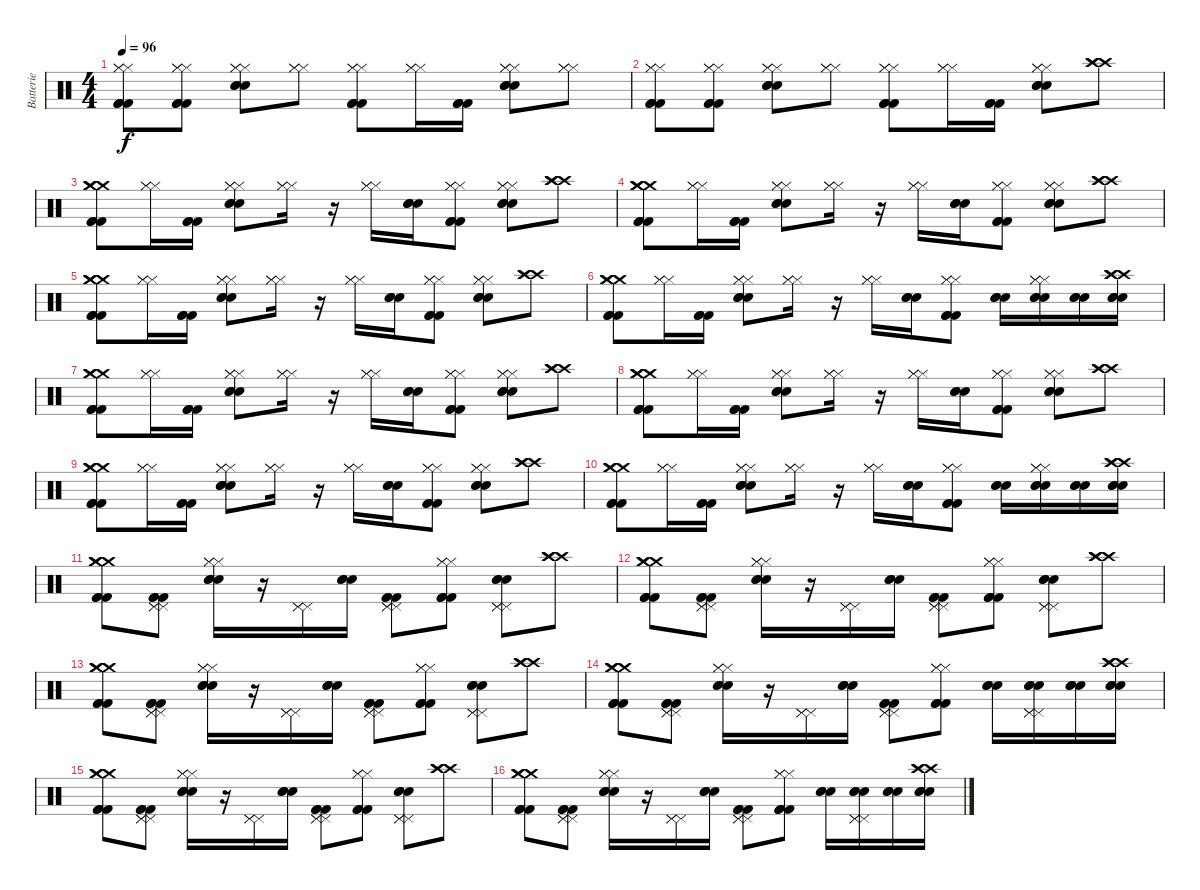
\track ("Batterie" "Batterie") {instrument percussion}
\staff {score}
\articulation defaults
\ts (4 4)
\tempo 96
\clef neutral
\ks c
("Hi-Hat (closed)" "Hi-Hat (closed)" "Hi-Hat (closed)" "Kick (hit) 2" "Kick (hit) 2" "Kick (hit) 2").8{dy f} ("Hi-Hat (closed)" "Hi-Hat (closed)" "Hi-Hat (closed)" "Kick (hit) 2" "Kick (hit) 2" "Kick (hit) 2").8 ("Hi-Hat (closed)" "Hi-Hat (closed)" "Hi-Hat (closed)" "Electric Snare (hit)" "Electric Snare (hit)" "Electric Snare (hit)").8 ("Hi-Hat (closed)" "Hi-Hat (closed)" "Hi-Hat (closed)").8 ("Hi-Hat (closed)" "Hi-Hat (closed)" "Hi-Hat (closed)" "Kick (hit) 2" "Kick (hit) 2" "Kick (hit) 2").8 ("Hi-Hat (closed)" "Hi-Hat (closed)" "Hi-Hat (closed)").16 ("Kick (hit) 2" "Kick (hit) 2" "Kick (hit) 2").16 ("Hi-Hat (closed)" "Hi-Hat (closed)" "Hi-Hat (closed)" "Electric Snare (hit)" "Electric Snare (hit)" "Electric Snare (hit)").8 ("Hi-Hat (closed)" "Hi-Hat (closed)" "Hi-Hat (closed)").8 |
("Hi-Hat (closed)" "Hi-Hat (closed)" "Hi-Hat (closed)" "Kick (hit) 2" "Kick (hit) 2" "Kick (hit) 2").8 ("Hi-Hat (closed)" "Hi-Hat (closed)" "Hi-Hat (closed)" "Kick (hit) 2" "Kick (hit) 2" "Kick (hit) 2").8 ("Hi-Hat (closed)" "Hi-Hat (closed)" "Hi-Hat (closed)" "Electric Snare (hit)" "Electric Snare (hit)" "Electric Snare (hit)").8 ("Hi-Hat (closed)" "Hi-Hat (closed)" "Hi-Hat (closed)").8 ("Hi-Hat (closed)" "Hi-Hat (closed)" "Hi-Hat (closed)" "Kick (hit) 2" "Kick (hit) 2" "Kick (hit) 2").8 ("Hi-Hat (closed)" "Hi-Hat (closed)" "Hi-Hat (closed)").16 ("Kick (hit) 2" "Kick (hit) 2" "Kick (hit) 2").16 ("Hi-Hat (closed)" "Hi-Hat (closed)" "Hi-Hat (closed)" "Electric Snare (hit)" "Electric Snare (hit)" "Electric Snare (hit)").8 ("Crash high (hit)" "Crash high (hit)" "Crash high (hit)").8 |
("Crash medium (hit)" "Crash medium (hit)" "Crash medium (hit)" "Kick (hit) 2" "Kick (hit) 2" "Kick (hit) 2").8 ("Hi-Hat (closed)" "Hi-Hat (closed)" "Hi-Hat (closed)").16 ("Kick (hit) 2" "Kick (hit) 2" "Kick (hit) 2").16 ("Hi-Hat (closed)" "Hi-Hat (closed)" "Hi-Hat (closed)" "Electric Snare (hit)" "Electric Snare (hit)" "Electric Snare (hit)").8 ("Hi-Hat (closed)" "Hi-Hat (closed)" "Hi-Hat (closed)").16 r.16 ("Hi-Hat (closed)" "Hi-Hat (closed)" "Hi-Hat (closed)").16 ("Electric Snare (hit)" "Electric Snare (hit)" "Electric Snare (hit)").16 ("Hi-Hat (closed)" "Hi-Hat (closed)" "Hi-Hat (closed)" "Kick (hit) 2" "Kick (hit) 2" "Kick (hit) 2").8 ("Hi-Hat (closed)" "Hi-Hat (closed)" "Hi-Hat (closed)" "Electric Snare (hit)" "Electric Snare (hit)" "Electric Snare (hit)").8 ("Crash high (hit)" "Crash high (hit)" "Crash high (hit)").8 |
("Crash medium (hit)" "Crash medium (hit)" "Crash medium (hit)" "Kick (hit) 2" "Kick (hit) 2" "Kick (hit) 2").8 ("Hi-Hat (closed)" "Hi-Hat (closed)" "Hi-Hat (closed)").16 ("Kick (hit) 2" "Kick (hit) 2" "Kick (hit) 2").16 ("Hi-Hat (closed)" "Hi-Hat (closed)" "Hi-Hat (closed)" "Electric Snare (hit)" "Electric Snare (hit)" "Electric Snare (hit)").8 ("Hi-Hat (closed)" "Hi-Hat (closed)" "Hi-Hat (closed)").16 r.16 ("Hi-Hat (closed)" "Hi-Hat (closed)" "Hi-Hat (closed)").16 ("Electric Snare (hit)" "Electric Snare (hit)" "Electric Snare (hit)").16 ("Hi-Hat (closed)" "Hi-Hat (closed)" "Hi-Hat (closed)" "Kick (hit) 2" "Kick (hit) 2" "Kick (hit) 2").8 ("Hi-Hat (closed)" "Hi-Hat (closed)" "Hi-Hat (closed)" "Electric Snare (hit)" "Electric Snare (hit)" "Electric Snare (hit)").8 ("Crash high (hit)" "Crash high (hit)" "Crash high (hit)").8 |
("Crash medium (hit)" "Crash medium (hit)" "Crash medium (hit)" "Kick (hit) 2" "Kick (hit) 2" "Kick (hit) 2").8 ("Hi-Hat (closed)" "Hi-Hat (closed)" "Hi-Hat (closed)").16 ("Kick (hit) 2" "Kick (hit) 2" "Kick (hit) 2").16 ("Hi-Hat (closed)" "Hi-Hat (closed)" "Hi-Hat (closed)" "Electric Snare (hit)" "Electric Snare (hit)" "Electric Snare (hit)").8 ("Hi-Hat (closed)" "Hi-Hat (closed)" "Hi-Hat (closed)").16 r.16 ("Hi-Hat (closed)" "Hi-Hat (closed)" "Hi-Hat (closed)").16 ("Electric Snare (hit)" "Electric Snare (hit)" "Electric Snare (hit)").16 ("Hi-Hat (closed)" "Hi-Hat (closed)" "Hi-Hat (closed)" "Kick (hit) 2" "Kick (hit) 2" "Kick (hit) 2").8 ("Hi-Hat (closed)" "Hi-Hat (closed)" "Hi-Hat (closed)" "Electric Snare (hit)" "Electric Snare (hit)" "Electric Snare (hit)").8 ("Crash high (hit)" "Crash high (hit)" "Crash high (hit)").8 |
("Crash medium (hit)" "Crash medium (hit)" "Crash medium (hit)" "Kick (hit) 2" "Kick (hit) 2" "Kick (hit) 2").8 ("Hi-Hat (closed)" "Hi-Hat (closed)" "Hi-Hat (closed)").16 ("Kick (hit) 2" "Kick (hit) 2" "Kick (hit) 2").16 ("Hi-Hat (closed)" "Hi-Hat (closed)" "Hi-Hat (closed)" "Electric Snare (hit)" "Electric Snare (hit)" "Electric Snare (hit)").8 ("Hi-Hat (closed)" "Hi-Hat (closed)" "Hi-Hat (closed)").16 r.16 ("Hi-Hat (closed)" "Hi-Hat (closed)" "Hi-Hat (closed)").16 ("Electric Snare (hit)" "Electric Snare (hit)" "Electric Snare (hit)").16 ("Hi-Hat (closed)" "Hi-Hat (closed)" "Hi-Hat (closed)" "Kick (hit) 2" "Kick (hit) 2" "Kick (hit) 2").8 ("Electric Snare (hit)" "Electric Snare (hit)" "Electric Snare (hit)").16 ("Hi-Hat (closed)" "Hi-Hat (closed)" "Hi-Hat (closed)" "Electric Snare (hit)" "Electric Snare (hit)" "Electric Snare (hit)").16 ("Electric Snare (hit)" "Electric Snare (hit)" "Electric Snare (hit)").16 ("Crash high (hit)" "Crash high (hit)" "Crash high (hit)" "Electric Snare (hit)" "Electric Snare (hit)" "Electric Snare (hit)").16 |
("Crash medium (hit)" "Crash medium (hit)" "Crash medium (hit)" "Kick (hit) 2" "Kick (hit) 2" "Kick (hit) 2").8 ("Hi-Hat (closed)" "Hi-Hat (closed)" "Hi-Hat (closed)").16 ("Kick (hit) 2" "Kick (hit) 2" "Kick (hit) 2").16 ("Hi-Hat (closed)" "Hi-Hat (closed)" "Hi-Hat (closed)" "Electric Snare (hit)" "Electric Snare (hit)" "Electric Snare (hit)").8 ("Hi-Hat (closed)" "Hi-Hat (closed)" "Hi-Hat (closed)").16 r.16 ("Hi-Hat (closed)" "Hi-Hat (closed)" "Hi-Hat (closed)").16 ("Electric Snare (hit)" "Electric Snare (hit)" "Electric Snare (hit)").16 ("Hi-Hat (closed)" "Hi-Hat (closed)" "Hi-Hat (closed)" "Kick (hit) 2" "Kick (hit) 2" "Kick (hit) 2").8 ("Hi-Hat (closed)" "Hi-Hat (closed)" "Hi-Hat (closed)" "Electric Snare (hit)" "Electric Snare (hit)" "Electric Snare (hit)").8 ("Crash high (hit)" "Crash high (hit)" "Crash high (hit)").8 |
("Crash medium (hit)" "Crash medium (hit)" "Crash medium (hit)" "Kick (hit) 2" "Kick (hit) 2" "Kick (hit) 2").8 ("Hi-Hat (closed)" "Hi-Hat (closed)" "Hi-Hat (closed)").16 ("Kick (hit) 2" "Kick (hit) 2" "Kick (hit) 2").16 ("Hi-Hat (closed)" "Hi-Hat (closed)" "Hi-Hat (closed)" "Electric Snare (hit)" "Electric Snare (hit)" "Electric Snare (hit)").8 ("Hi-Hat (closed)" "Hi-Hat (closed)" "Hi-Hat (closed)").16 r.16 ("Hi-Hat (closed)" "Hi-Hat (closed)" "Hi-Hat (closed)").16 ("Electric Snare (hit)" "Electric Snare (hit)" "Electric Snare (hit)").16 ("Hi-Hat (closed)" "Hi-Hat (closed)" "Hi-Hat (closed)" "Kick (hit) 2" "Kick (hit) 2" "Kick (hit) 2").8 ("Hi-Hat (closed)" "Hi-Hat (closed)" "Hi-Hat (closed)" "Electric Snare (hit)" "Electric Snare (hit)" "Electric Snare (hit)").8 ("Crash high (hit)" "Crash high (hit)" "Crash high (hit)").8 |
("Crash medium (hit)" "Crash medium (hit)" "Crash medium (hit)" "Kick (hit) 2" "Kick (hit) 2" "Kick (hit) 2").8 ("Hi-Hat (closed)" "Hi-Hat (closed)" "Hi-Hat (closed)").16 ("Kick (hit) 2" "Kick (hit) 2" "Kick (hit) 2").16 ("Hi-Hat (closed)" "Hi-Hat (closed)" "Hi-Hat (closed)" "Electric Snare (hit)" "Electric Snare (hit)" "Electric Snare (hit)").8 ("Hi-Hat (closed)" "Hi-Hat (closed)" "Hi-Hat (closed)").16 r.16 ("Hi-Hat (closed)" "Hi-Hat (closed)" "Hi-Hat (closed)").16 ("Electric Snare (hit)" "Electric Snare (hit)" "Electric Snare (hit)").16 ("Hi-Hat (closed)" "Hi-Hat (closed)" "Hi-Hat (closed)" "Kick (hit) 2" "Kick (hit) 2" "Kick (hit) 2").8 ("Hi-Hat (closed)" "Hi-Hat (closed)" "Hi-Hat (closed)" "Electric Snare (hit)" "Electric Snare (hit)" "Electric Snare (hit)").8 ("Crash high (hit)" "Crash high (hit)" "Crash high (hit)").8 |
("Crash medium (hit)" "Crash medium (hit)" "Crash medium (hit)" "Kick (hit) 2" "Kick (hit) 2" "Kick (hit) 2").8 ("Hi-Hat (closed)" "Hi-Hat (closed)" "Hi-Hat (closed)").16 ("Kick (hit) 2" "Kick (hit) 2" "Kick (hit) 2").16 ("Hi-Hat (closed)" "Hi-Hat (closed)" "Hi-Hat (closed)" "Electric Snare (hit)" "Electric Snare (hit)" "Electric Snare (hit)").8 ("Hi-Hat (closed)" "Hi-Hat (closed)" "Hi-Hat (closed)").16 r.16 ("Hi-Hat (closed)" "Hi-Hat (closed)" "Hi-Hat (closed)").16 ("Electric Snare (hit)" "Electric Snare (hit)" "Electric Snare (hit)").16 ("Hi-Hat (closed)" "Hi-Hat (closed)" "Hi-Hat (closed)" "Kick (hit) 2" "Kick (hit) 2" "Kick (hit) 2").8 ("Electric Snare (hit)" "Electric Snare (hit)" "Electric Snare (hit)").16 ("Hi-Hat (closed)" "Hi-Hat (closed)" "Hi-Hat (closed)" "Electric Snare (hit)" "Electric Snare (hit)" "Electric Snare (hit)").16 ("Electric Snare (hit)" "Electric Snare (hit)" "Electric Snare (hit)").16 ("Crash high (hit)" "Crash high (hit)" "Crash high (hit)" "Electric Snare (hit)" "Electric Snare (hit)" "Electric Snare (hit)").16 |
("Crash medium (hit)" "Crash medium (hit)" "Crash medium (hit)" "Kick (hit) 2" "Kick (hit) 2" "Kick (hit) 2").8 ("Pedal Hi-Hat (hit)" "Pedal Hi-Hat (hit)" "Pedal Hi-Hat (hit)" "Kick (hit) 2" "Kick (hit) 2" "Kick (hit) 2").8 ("Hi-Hat (closed)" "Hi-Hat (closed)" "Hi-Hat (closed)" "Electric Snare (hit)" "Electric Snare (hit)" "Electric Snare (hit)").16 r.16 ("Pedal Hi-Hat (hit)" "Pedal Hi-Hat (hit)" "Pedal Hi-Hat (hit)").16 ("Electric Snare (hit)" "Electric Snare (hit)" "Electric Snare (hit)").16 ("Pedal Hi-Hat (hit)" "Pedal Hi-Hat (hit)" "Pedal Hi-Hat (hit)" "Kick (hit) 2" "Kick (hit) 2" "Kick (hit) 2").8 ("Hi-Hat (closed)" "Hi-Hat (closed)" "Hi-Hat (closed)" "Kick (hit) 2" "Kick (hit) 2" "Kick (hit) 2").8 ("Pedal Hi-Hat (hit)" "Pedal Hi-Hat (hit)" "Pedal Hi-Hat (hit)" "Electric Snare (hit)" "Electric Snare (hit)" "Electric Snare (hit)").8 ("Crash high (hit)" "Crash high (hit)" "Crash high (hit)").8 |
("Crash medium (hit)" "Crash medium (hit)" "Crash medium (hit)" "Kick (hit) 2" "Kick (hit) 2" "Kick (hit) 2").8 ("Pedal Hi-Hat (hit)" "Pedal Hi-Hat (hit)" "Pedal Hi-Hat (hit)" "Kick (hit) 2" "Kick (hit) 2" "Kick (hit) 2").8 ("Hi-Hat (closed)" "Hi-Hat (closed)" "Hi-Hat (closed)" "Electric Snare (hit)" "Electric Snare (hit)" "Electric Snare (hit)").16 r.16 ("Pedal Hi-Hat (hit)" "Pedal Hi-Hat (hit)" "Pedal Hi-Hat (hit)").16 ("Electric Snare (hit)" "Electric Snare (hit)" "Electric Snare (hit)").16 ("Pedal Hi-Hat (hit)" "Pedal Hi-Hat (hit)" "Pedal Hi-Hat (hit)" "Kick (hit) 2" "Kick (hit) 2" "Kick (hit) 2").8 ("Hi-Hat (closed)" "Hi-Hat (closed)" "Hi-Hat (closed)" "Kick (hit) 2" "Kick (hit) 2" "Kick (hit) 2").8 ("Pedal Hi-Hat (hit)" "Pedal Hi-Hat (hit)" "Pedal Hi-Hat (hit)" "Electric Snare (hit)" "Electric Snare (hit)" "Electric Snare (hit)").8 ("Crash high (hit)" "Crash high (hit)" "Crash high (hit)").8 |
("Crash medium (hit)" "Crash medium (hit)" "Crash medium (hit)" "Kick (hit) 2" "Kick (hit) 2" "Kick (hit) 2").8 ("Pedal Hi-Hat (hit)" "Pedal Hi-Hat (hit)" "Pedal Hi-Hat (hit)" "Kick (hit) 2" "Kick (hit) 2" "Kick (hit) 2").8 ("Hi-Hat (closed)" "Hi-Hat (closed)" "Hi-Hat (closed)" "Electric Snare (hit)" "Electric Snare (hit)" "Electric Snare (hit)").16 r.16 ("Pedal Hi-Hat (hit)" "Pedal Hi-Hat (hit)" "Pedal Hi-Hat (hit)").16 ("Electric Snare (hit)" "Electric Snare (hit)" "Electric Snare (hit)").16 ("Pedal Hi-Hat (hit)" "Pedal Hi-Hat (hit)" "Pedal Hi-Hat (hit)" "Kick (hit) 2" "Kick (hit) 2" "Kick (hit) 2").8 ("Hi-Hat (closed)" "Hi-Hat (closed)" "Hi-Hat (closed)" "Kick (hit) 2" "Kick (hit) 2" "Kick (hit) 2").8 ("Pedal Hi-Hat (hit)" "Pedal Hi-Hat (hit)" "Pedal Hi-Hat (hit)" "Electric Snare (hit)" "Electric Snare (hit)" "Electric Snare (hit)").8 ("Crash high (hit)" "Crash high (hit)" "Crash high (hit)").8 |
("Crash medium (hit)" "Crash medium (hit)" "Crash medium (hit)" "Kick (hit) 2" "Kick (hit) 2" "Kick (hit) 2").8 ("Pedal Hi-Hat (hit)" "Pedal Hi-Hat (hit)" "Pedal Hi-Hat (hit)" "Kick (hit) 2" "Kick (hit) 2" "Kick (hit) 2").8 ("Hi-Hat (closed)" "Hi-Hat (closed)" "Hi-Hat (closed)" "Electric Snare (hit)" "Electric Snare (hit)" "Electric Snare (hit)").16 r.16 ("Pedal Hi-Hat (hit)" "Pedal Hi-Hat (hit)" "Pedal Hi-Hat (hit)").16 ("Electric Snare (hit)" "Electric Snare (hit)" "Electric Snare (hit)").16 ("Pedal Hi-Hat (hit)" "Pedal Hi-Hat (hit)" "Pedal Hi-Hat (hit)" "Kick (hit) 2" "Kick (hit) 2" "Kick (hit) 2").8 ("Hi-Hat (closed)" "Hi-Hat (closed)" "Hi-Hat (closed)" "Kick (hit) 2" "Kick (hit) 2" "Kick (hit) 2").8 ("Electric Snare (hit)" "Electric Snare (hit)" "Electric Snare (hit)").16 ("Pedal Hi-Hat (hit)" "Pedal Hi-Hat (hit)" "Pedal Hi-Hat (hit)" "Electric Snare (hit)" "Electric Snare (hit)" "Electric Snare (hit)").16 ("Electric Snare (hit)" "Electric Snare (hit)" "Electric Snare (hit)").16 ("Crash high (hit)" "Crash high (hit)" "Crash high (hit)" "Electric Snare (hit)" "Electric Snare (hit)" "Electric Snare (hit)").16 |
("Crash medium (hit)" "Crash medium (hit)" "Crash medium (hit)" "Kick (hit) 2" "Kick (hit) 2" "Kick (hit) 2").8 ("Pedal Hi-Hat (hit)" "Pedal Hi-Hat (hit)" "Pedal Hi-Hat (hit)" "Kick (hit) 2" "Kick (hit) 2" "Kick (hit) 2").8 ("Hi-Hat (closed)" "Hi-Hat (closed)" "Hi-Hat (closed)" "Electric Snare (hit)" "Electric Snare (hit)" "Electric Snare (hit)").16 r.16 ("Pedal Hi-Hat (hit)" "Pedal Hi-Hat (hit)" "Pedal Hi-Hat (hit)").16 ("Electric Snare (hit)" "Electric Snare (hit)" "Electric Snare (hit)").16 ("Pedal Hi-Hat (hit)" "Pedal Hi-Hat (hit)" "Pedal Hi-Hat (hit)" "Kick (hit) 2" "Kick (hit) 2" "Kick (hit) 2").8 ("Hi-Hat (closed)" "Hi-Hat (closed)" "Hi-Hat (closed)" "Kick (hit) 2" "Kick (hit) 2" "Kick (hit) 2").8 ("Pedal Hi-Hat (hit)" "Pedal Hi-Hat (hit)" "Pedal Hi-Hat (hit)" "Electric Snare (hit)" "Electric Snare (hit)" "Electric Snare (hit)").8 ("Crash high (hit)" "Crash high (hit)" "Crash high (hit)").8 |
("Crash medium (hit)" "Crash medium (hit)" "Crash medium (hit)" "Kick (hit) 2" "Kick (hit) 2" "Kick (hit) 2").8 ("Pedal Hi-Hat (hit)" "Pedal Hi-Hat (hit)" "Pedal Hi-Hat (hit)" "Kick (hit) 2" "Kick (hit) 2" "Kick (hit) 2").8 ("Hi-Hat (closed)" "Hi-Hat (closed)" "Hi-Hat (closed)" "Electric Snare (hit)" "Electric Snare (hit)" "Electric Snare (hit)").16 r.16 ("Pedal Hi-Hat (hit)" "Pedal Hi-Hat (hit)" "Pedal Hi-Hat (hit)").16 ("Electric Snare (hit)" "Electric Snare (hit)" "Electric Snare (hit)").16 ("Pedal Hi-Hat (hit)" "Pedal Hi-Hat (hit)" "Pedal Hi-Hat (hit)" "Kick (hit) 2" "Kick (hit) 2" "Kick (hit) 2").8 ("Hi-Hat (closed)" "Hi-Hat (closed)" "Hi-Hat (closed)" "Kick (hit) 2" "Kick (hit) 2" "Kick (hit) 2").8 ("Electric Snare (hit)" "Electric Snare (hit)" "Electric Snare (hit)").16 ("Pedal Hi-Hat (hit)" "Pedal Hi-Hat (hit)" "Pedal Hi-Hat (hit)" "Electric Snare (hit)" "Electric Snare (hit)" "Electric Snare (hit)").16 ("Electric Snare (hit)" "Electric Snare (hit)" "Electric Snare (hit)").16 ("Crash high (hit)" "Crash high (hit)" "Crash high (hit)" "Electric Snare (hit)" "Electric Snare (hit)" "Electric Snare (hit)").16
